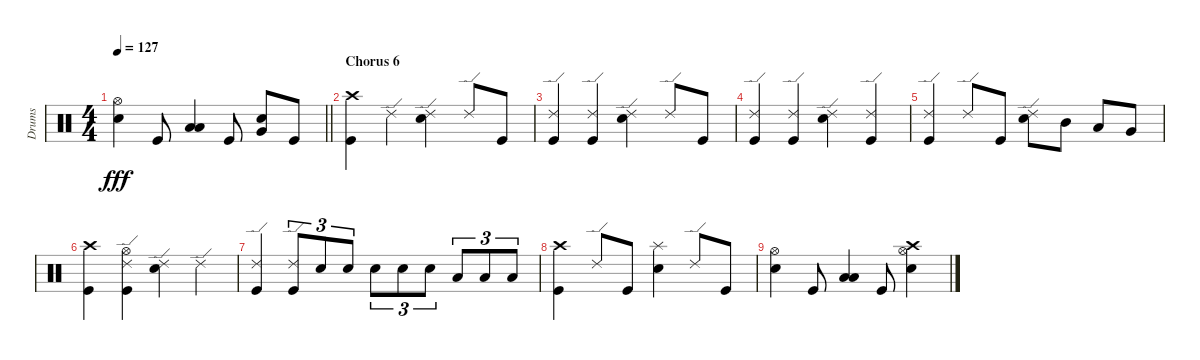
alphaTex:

\track ("Drums" "Drums") {instrument percussion}
\staff {score}
\articulation defaults
\ts (4 4)
\tempo 127
\clef neutral
\barLineRight lightlight
\ks c
("Snare (hit) 2" "Hi-Hat (open)").4{dy fff} "Kick (hit)".8 ("Low Floor Tom (hit)" "Low Tom (hit)").4 "Kick (hit)".8 ("Snare (hit) 2" "Very Low Tom (hit)").8 "Kick (hit)".8 |
\section ("" "Chorus 6")
("Kick (hit)" "Crash high (hit)").4 "Ride (edge) 2".4 ("Snare (hit) 2" "Ride (edge) 2").4 "Ride (edge) 2".8 "Kick (hit)".8 |
("Kick (hit)" "Ride (edge) 2").4 ("Kick (hit)" "Ride (edge) 2").4 ("Snare (hit) 2" "Ride (edge) 2").4 "Ride (edge) 2".8 "Kick (hit)".8 |
("Kick (hit)" "Ride (edge) 2").4 ("Kick (hit)" "Ride (edge) 2").4 ("Snare (hit) 2" "Ride (edge) 2").4 ("Kick (hit)" "Ride (edge) 2").4 |
("Kick (hit)" "Ride (edge) 2").4 "Ride (edge) 2".8 "Kick (hit)".8 ("Snare (hit) 2" "Ride (edge) 2").8 "Mid Tom (hit)".8 "Low Tom (hit)".8 "Very Low Tom (hit)".8 |
("Kick (hit)" "Crash high (hit)").4 ("Kick (hit)" "Hi-Hat (open)" "Ride (edge) 2").4 ("Snare (hit) 2" "Ride (edge) 2").4 "Ride (edge) 2".4 |
("Ride (edge) 2" "Kick (hit)").4 ("Ride (edge) 2" "Kick (hit)").8{tu (3 2)} "Snare (hit) 2".8{tu (3 2)} "Snare (hit) 2".8{tu (3 2)} "Snare (hit) 2".8{tu (3 2)} "Snare (hit) 2".8{tu (3 2)} "Snare (hit) 2".8{tu (3 2)} "Low Tom (hit)".8{tu (3 2)} "Low Tom (hit)".8{tu (3 2)} "Low Tom (hit)".8{tu (3 2)} |
("Kick (hit)" "Crash high (hit)").4 "Ride (edge) 2".8 "Kick (hit)".8 ("Snare (hit) 2" "Splash (hit)").4 "Ride (edge) 2".8 "Kick (hit)".8 |
("Snare (hit) 2" "Hi-Hat (open)").4 "Kick (hit)".8 ("Low Floor Tom (hit)" "Low Tom (hit)").4 "Kick (hit)".8 ("Snare (hit) 2" "Hi-Hat (open)" "Crash high (hit)").4
